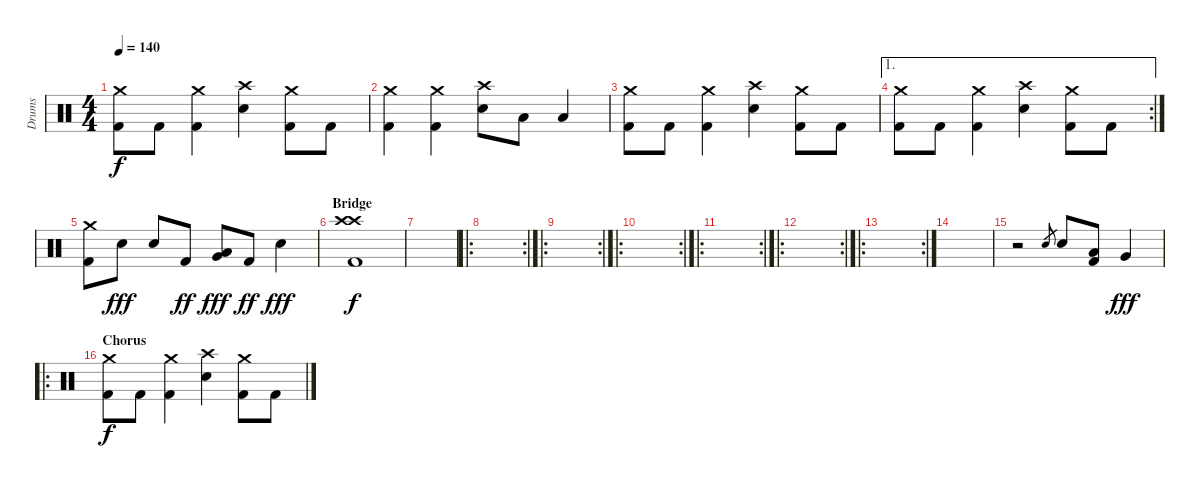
\track ("Drums" "Drums") {instrument percussion}
\staff {score}
\articulation defaults
\ts (4 4)
\tempo 140
\clef neutral
\ks c
("Crash medium (hit)" "Kick (hit) 2").8{dy f} "Kick (hit) 2".8 ("Crash medium (hit)" "Kick (hit) 2").4 ("Crash high (hit)" "Electric Snare (hit)").4 ("Crash medium (hit)" "Kick (hit) 2").8 "Kick (hit) 2".8 |
("Crash medium (hit)" "Kick (hit) 2").4 ("Crash medium (hit)" "Kick (hit) 2").4 ("Crash high (hit)" "Electric Snare (hit)").8 "Low Tom (hit)".8 "Low Tom (hit)".4 |
("Crash medium (hit)" "Kick (hit) 2").8 "Kick (hit) 2".8 ("Crash medium (hit)" "Kick (hit) 2").4 ("Crash high (hit)" "Electric Snare (hit)").4 ("Crash medium (hit)" "Kick (hit) 2").8 "Kick (hit) 2".8 |
\ae 1
\rc 2
("Crash medium (hit)" "Kick (hit) 2").8 "Kick (hit) 2".8 ("Crash medium (hit)" "Kick (hit) 2").4 ("Crash high (hit)" "Electric Snare (hit)").4 ("Crash medium (hit)" "Kick (hit) 2").8 "Kick (hit) 2".8 |
("Crash medium (hit)" "Kick (hit) 2").8 "Electric Snare (hit)".8{dy fff} "Electric Snare (hit)".8 "Kick (hit) 2".8{dy ff} ("Very Low Tom (hit)" "Low Tom (hit)").8{dy fff} "Kick (hit) 2".8{dy ff} "Electric Snare (hit)".4{dy fff} |
\section ("" "Bridge")
("Crash high (hit)" "Crash high (hit)" "Kick (hit) 2").1{dy f} |
|
\ro
\rc 2
|
\ro
\rc 2
|
\ro
\rc 2
|
\ro
\rc 2
|
\ro
\rc 2
|
\ro
\rc 2
|
|
r.2 "Electric Snare (hit)".8{gr} "Electric Snare (hit)".8 ("Low Tom (hit)" "Kick (hit) 2").8 "Very Low Tom (hit)".4{dy fff} |
\ro
\section ("" "Chorus")
("Crash medium (hit)" "Kick (hit) 2").8{dy f} "Kick (hit) 2".8 ("Crash medium (hit)" "Kick (hit) 2").4 ("Crash high (hit)" "Electric Snare (hit)").4 ("Crash medium (hit)" "Kick (hit) 2").8 "Kick (hit) 2".8
